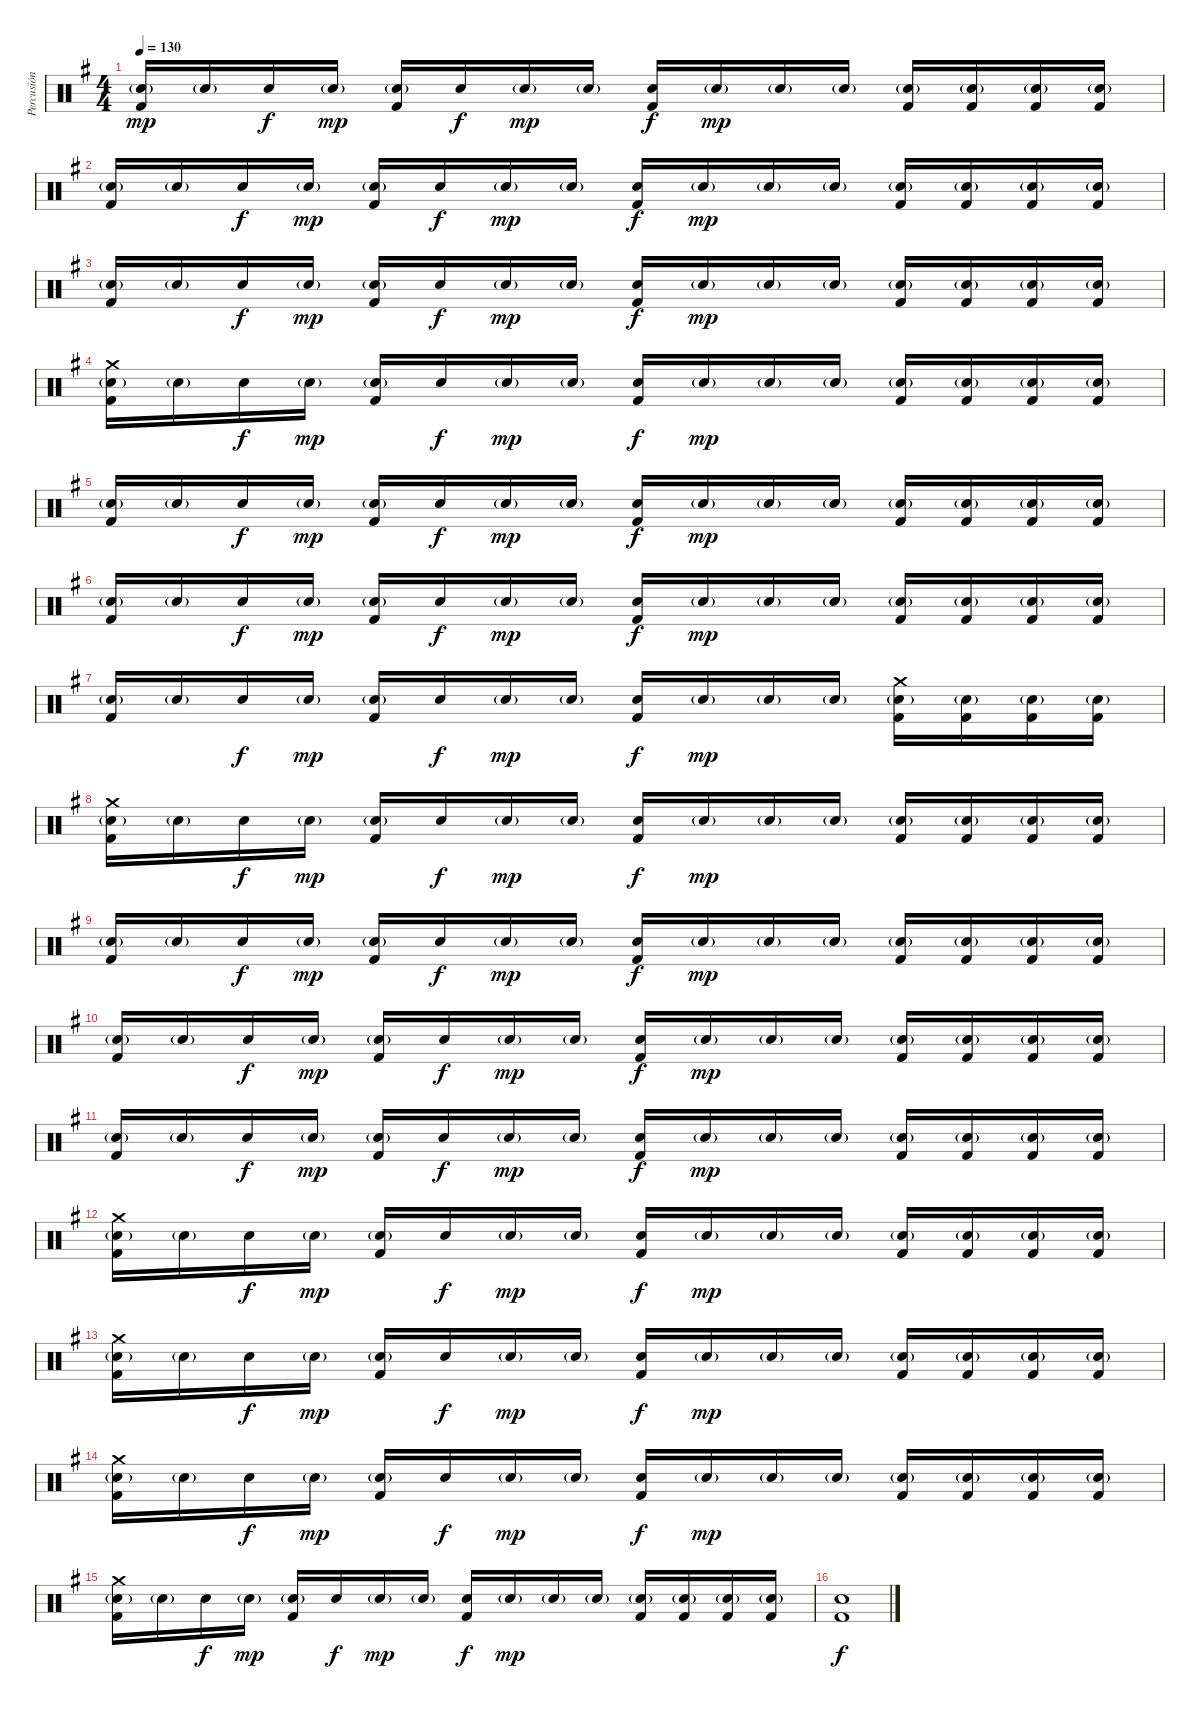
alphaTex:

\track ("Percusión" "Percusión") {instrument percussion}
\staff {score}
\articulation defaults
\ts (4 4)
\tempo 130
\clef neutral
\ks g
("Electric Snare (hit)"{g} "Kick (hit) 2").16{dy mp} "Electric Snare (hit)"{g}.16 "Electric Snare (hit)".16{dy f} "Electric Snare (hit)"{g}.16{dy mp} ("Electric Snare (hit)"{g} "Kick (hit) 2").16 "Electric Snare (hit)".16{dy f} "Electric Snare (hit)"{g}.16{dy mp} "Electric Snare (hit)"{g}.16 ("Electric Snare (hit)" "Kick (hit) 2").16{dy f} "Electric Snare (hit)"{g}.16{dy mp} "Electric Snare (hit)"{g}.16 "Electric Snare (hit)"{g}.16 ("Electric Snare (hit)"{g} "Kick (hit) 2").16 ("Electric Snare (hit)"{g} "Kick (hit) 2").16 ("Electric Snare (hit)"{g} "Kick (hit) 2").16 ("Electric Snare (hit)"{g} "Kick (hit) 2").16 |
("Electric Snare (hit)"{g} "Kick (hit) 2").16 "Electric Snare (hit)"{g}.16 "Electric Snare (hit)".16{dy f} "Electric Snare (hit)"{g}.16{dy mp} ("Electric Snare (hit)"{g} "Kick (hit) 2").16 "Electric Snare (hit)".16{dy f} "Electric Snare (hit)"{g}.16{dy mp} "Electric Snare (hit)"{g}.16 ("Electric Snare (hit)" "Kick (hit) 2").16{dy f} "Electric Snare (hit)"{g}.16{dy mp} "Electric Snare (hit)"{g}.16 "Electric Snare (hit)"{g}.16 ("Electric Snare (hit)"{g} "Kick (hit) 2").16 ("Electric Snare (hit)"{g} "Kick (hit) 2").16 ("Electric Snare (hit)"{g} "Kick (hit) 2").16 ("Electric Snare (hit)"{g} "Kick (hit) 2").16 |
("Electric Snare (hit)"{g} "Kick (hit) 2").16 "Electric Snare (hit)"{g}.16 "Electric Snare (hit)".16{dy f} "Electric Snare (hit)"{g}.16{dy mp} ("Electric Snare (hit)"{g} "Kick (hit) 2").16 "Electric Snare (hit)".16{dy f} "Electric Snare (hit)"{g}.16{dy mp} "Electric Snare (hit)"{g}.16 ("Electric Snare (hit)" "Kick (hit) 2").16{dy f} "Electric Snare (hit)"{g}.16{dy mp} "Electric Snare (hit)"{g}.16 "Electric Snare (hit)"{g}.16 ("Electric Snare (hit)"{g} "Kick (hit) 2").16 ("Electric Snare (hit)"{g} "Kick (hit) 2").16 ("Electric Snare (hit)"{g} "Kick (hit) 2").16 ("Electric Snare (hit)"{g} "Kick (hit) 2").16 |
("Crash medium (hit)" "Electric Snare (hit)"{g} "Kick (hit) 2").16 "Electric Snare (hit)"{g}.16 "Electric Snare (hit)".16{dy f} "Electric Snare (hit)"{g}.16{dy mp} ("Electric Snare (hit)"{g} "Kick (hit) 2").16 "Electric Snare (hit)".16{dy f} "Electric Snare (hit)"{g}.16{dy mp} "Electric Snare (hit)"{g}.16 ("Electric Snare (hit)" "Kick (hit) 2").16{dy f} "Electric Snare (hit)"{g}.16{dy mp} "Electric Snare (hit)"{g}.16 "Electric Snare (hit)"{g}.16 ("Electric Snare (hit)"{g} "Kick (hit) 2").16 ("Electric Snare (hit)"{g} "Kick (hit) 2").16 ("Electric Snare (hit)"{g} "Kick (hit) 2").16 ("Electric Snare (hit)"{g} "Kick (hit) 2").16 |
("Electric Snare (hit)"{g} "Kick (hit) 2").16 "Electric Snare (hit)"{g}.16 "Electric Snare (hit)".16{dy f} "Electric Snare (hit)"{g}.16{dy mp} ("Electric Snare (hit)"{g} "Kick (hit) 2").16 "Electric Snare (hit)".16{dy f} "Electric Snare (hit)"{g}.16{dy mp} "Electric Snare (hit)"{g}.16 ("Electric Snare (hit)" "Kick (hit) 2").16{dy f} "Electric Snare (hit)"{g}.16{dy mp} "Electric Snare (hit)"{g}.16 "Electric Snare (hit)"{g}.16 ("Electric Snare (hit)"{g} "Kick (hit) 2").16 ("Electric Snare (hit)"{g} "Kick (hit) 2").16 ("Electric Snare (hit)"{g} "Kick (hit) 2").16 ("Electric Snare (hit)"{g} "Kick (hit) 2").16 |
("Electric Snare (hit)"{g} "Kick (hit) 2").16 "Electric Snare (hit)"{g}.16 "Electric Snare (hit)".16{dy f} "Electric Snare (hit)"{g}.16{dy mp} ("Electric Snare (hit)"{g} "Kick (hit) 2").16 "Electric Snare (hit)".16{dy f} "Electric Snare (hit)"{g}.16{dy mp} "Electric Snare (hit)"{g}.16 ("Electric Snare (hit)" "Kick (hit) 2").16{dy f} "Electric Snare (hit)"{g}.16{dy mp} "Electric Snare (hit)"{g}.16 "Electric Snare (hit)"{g}.16 ("Electric Snare (hit)"{g} "Kick (hit) 2").16 ("Electric Snare (hit)"{g} "Kick (hit) 2").16 ("Electric Snare (hit)"{g} "Kick (hit) 2").16 ("Electric Snare (hit)"{g} "Kick (hit) 2").16 |
("Electric Snare (hit)"{g} "Kick (hit) 2").16 "Electric Snare (hit)"{g}.16 "Electric Snare (hit)".16{dy f} "Electric Snare (hit)"{g}.16{dy mp} ("Electric Snare (hit)"{g} "Kick (hit) 2").16 "Electric Snare (hit)".16{dy f} "Electric Snare (hit)"{g}.16{dy mp} "Electric Snare (hit)"{g}.16 ("Electric Snare (hit)" "Kick (hit) 2").16{dy f} "Electric Snare (hit)"{g}.16{dy mp} "Electric Snare (hit)"{g}.16 "Electric Snare (hit)"{g}.16 ("Crash medium (hit)" "Electric Snare (hit)"{g} "Kick (hit) 2").16 ("Electric Snare (hit)"{g} "Kick (hit) 2").16 ("Electric Snare (hit)"{g} "Kick (hit) 2").16 ("Electric Snare (hit)"{g} "Kick (hit) 2").16 |
("Crash medium (hit)" "Electric Snare (hit)"{g} "Kick (hit) 2").16 "Electric Snare (hit)"{g}.16 "Electric Snare (hit)".16{dy f} "Electric Snare (hit)"{g}.16{dy mp} ("Electric Snare (hit)"{g} "Kick (hit) 2").16 "Electric Snare (hit)".16{dy f} "Electric Snare (hit)"{g}.16{dy mp} "Electric Snare (hit)"{g}.16 ("Electric Snare (hit)" "Kick (hit) 2").16{dy f} "Electric Snare (hit)"{g}.16{dy mp} "Electric Snare (hit)"{g}.16 "Electric Snare (hit)"{g}.16 ("Electric Snare (hit)"{g} "Kick (hit) 2").16 ("Electric Snare (hit)"{g} "Kick (hit) 2").16 ("Electric Snare (hit)"{g} "Kick (hit) 2").16 ("Electric Snare (hit)"{g} "Kick (hit) 2").16 |
("Electric Snare (hit)"{g} "Kick (hit) 2").16 "Electric Snare (hit)"{g}.16 "Electric Snare (hit)".16{dy f} "Electric Snare (hit)"{g}.16{dy mp} ("Electric Snare (hit)"{g} "Kick (hit) 2").16 "Electric Snare (hit)".16{dy f} "Electric Snare (hit)"{g}.16{dy mp} "Electric Snare (hit)"{g}.16 ("Electric Snare (hit)" "Kick (hit) 2").16{dy f} "Electric Snare (hit)"{g}.16{dy mp} "Electric Snare (hit)"{g}.16 "Electric Snare (hit)"{g}.16 ("Electric Snare (hit)"{g} "Kick (hit) 2").16 ("Electric Snare (hit)"{g} "Kick (hit) 2").16 ("Electric Snare (hit)"{g} "Kick (hit) 2").16 ("Electric Snare (hit)"{g} "Kick (hit) 2").16 |
("Electric Snare (hit)"{g} "Kick (hit) 2").16 "Electric Snare (hit)"{g}.16 "Electric Snare (hit)".16{dy f} "Electric Snare (hit)"{g}.16{dy mp} ("Electric Snare (hit)"{g} "Kick (hit) 2").16 "Electric Snare (hit)".16{dy f} "Electric Snare (hit)"{g}.16{dy mp} "Electric Snare (hit)"{g}.16 ("Electric Snare (hit)" "Kick (hit) 2").16{dy f} "Electric Snare (hit)"{g}.16{dy mp} "Electric Snare (hit)"{g}.16 "Electric Snare (hit)"{g}.16 ("Electric Snare (hit)"{g} "Kick (hit) 2").16 ("Electric Snare (hit)"{g} "Kick (hit) 2").16 ("Electric Snare (hit)"{g} "Kick (hit) 2").16 ("Electric Snare (hit)"{g} "Kick (hit) 2").16 |
("Electric Snare (hit)"{g} "Kick (hit) 2").16 "Electric Snare (hit)"{g}.16 "Electric Snare (hit)".16{dy f} "Electric Snare (hit)"{g}.16{dy mp} ("Electric Snare (hit)"{g} "Kick (hit) 2").16 "Electric Snare (hit)".16{dy f} "Electric Snare (hit)"{g}.16{dy mp} "Electric Snare (hit)"{g}.16 ("Electric Snare (hit)" "Kick (hit) 2").16{dy f} "Electric Snare (hit)"{g}.16{dy mp} "Electric Snare (hit)"{g}.16 "Electric Snare (hit)"{g}.16 ("Electric Snare (hit)"{g} "Kick (hit) 2").16 ("Electric Snare (hit)"{g} "Kick (hit) 2").16 ("Electric Snare (hit)"{g} "Kick (hit) 2").16 ("Electric Snare (hit)"{g} "Kick (hit) 2").16 |
("Crash medium (hit)" "Electric Snare (hit)"{g} "Kick (hit) 2").16 "Electric Snare (hit)"{g}.16 "Electric Snare (hit)".16{dy f} "Electric Snare (hit)"{g}.16{dy mp} ("Electric Snare (hit)"{g} "Kick (hit) 2").16 "Electric Snare (hit)".16{dy f} "Electric Snare (hit)"{g}.16{dy mp} "Electric Snare (hit)"{g}.16 ("Electric Snare (hit)" "Kick (hit) 2").16{dy f} "Electric Snare (hit)"{g}.16{dy mp} "Electric Snare (hit)"{g}.16 "Electric Snare (hit)"{g}.16 ("Electric Snare (hit)"{g} "Kick (hit) 2").16 ("Electric Snare (hit)"{g} "Kick (hit) 2").16 ("Electric Snare (hit)"{g} "Kick (hit) 2").16 ("Electric Snare (hit)"{g} "Kick (hit) 2").16 |
("Crash medium (hit)" "Electric Snare (hit)"{g} "Kick (hit) 2").16 "Electric Snare (hit)"{g}.16 "Electric Snare (hit)".16{dy f} "Electric Snare (hit)"{g}.16{dy mp} ("Electric Snare (hit)"{g} "Kick (hit) 2").16 "Electric Snare (hit)".16{dy f} "Electric Snare (hit)"{g}.16{dy mp} "Electric Snare (hit)"{g}.16 ("Electric Snare (hit)" "Kick (hit) 2").16{dy f} "Electric Snare (hit)"{g}.16{dy mp} "Electric Snare (hit)"{g}.16 "Electric Snare (hit)"{g}.16 ("Electric Snare (hit)"{g} "Kick (hit) 2").16 ("Electric Snare (hit)"{g} "Kick (hit) 2").16 ("Electric Snare (hit)"{g} "Kick (hit) 2").16 ("Electric Snare (hit)"{g} "Kick (hit) 2").16 |
("Crash medium (hit)" "Electric Snare (hit)"{g} "Kick (hit) 2").16 "Electric Snare (hit)"{g}.16 "Electric Snare (hit)".16{dy f} "Electric Snare (hit)"{g}.16{dy mp} ("Electric Snare (hit)"{g} "Kick (hit) 2").16 "Electric Snare (hit)".16{dy f} "Electric Snare (hit)"{g}.16{dy mp} "Electric Snare (hit)"{g}.16 ("Electric Snare (hit)" "Kick (hit) 2").16{dy f} "Electric Snare (hit)"{g}.16{dy mp} "Electric Snare (hit)"{g}.16 "Electric Snare (hit)"{g}.16 ("Electric Snare (hit)"{g} "Kick (hit) 2").16 ("Electric Snare (hit)"{g} "Kick (hit) 2").16 ("Electric Snare (hit)"{g} "Kick (hit) 2").16 ("Electric Snare (hit)"{g} "Kick (hit) 2").16 |
("Crash medium (hit)" "Electric Snare (hit)"{g} "Kick (hit) 2").16 "Electric Snare (hit)"{g}.16 "Electric Snare (hit)".16{dy f} "Electric Snare (hit)"{g}.16{dy mp} ("Electric Snare (hit)"{g} "Kick (hit) 2").16 "Electric Snare (hit)".16{dy f} "Electric Snare (hit)"{g}.16{dy mp} "Electric Snare (hit)"{g}.16 ("Electric Snare (hit)" "Kick (hit) 2").16{dy f} "Electric Snare (hit)"{g}.16{dy mp} "Electric Snare (hit)"{g}.16 "Electric Snare (hit)"{g}.16 ("Electric Snare (hit)"{g} "Kick (hit) 2").16 ("Electric Snare (hit)"{g} "Kick (hit) 2").16 ("Electric Snare (hit)"{g} "Kick (hit) 2").16 ("Electric Snare (hit)"{g} "Kick (hit) 2").16 |
("Electric Snare (hit)" "Kick (hit) 2").1{dy f}
